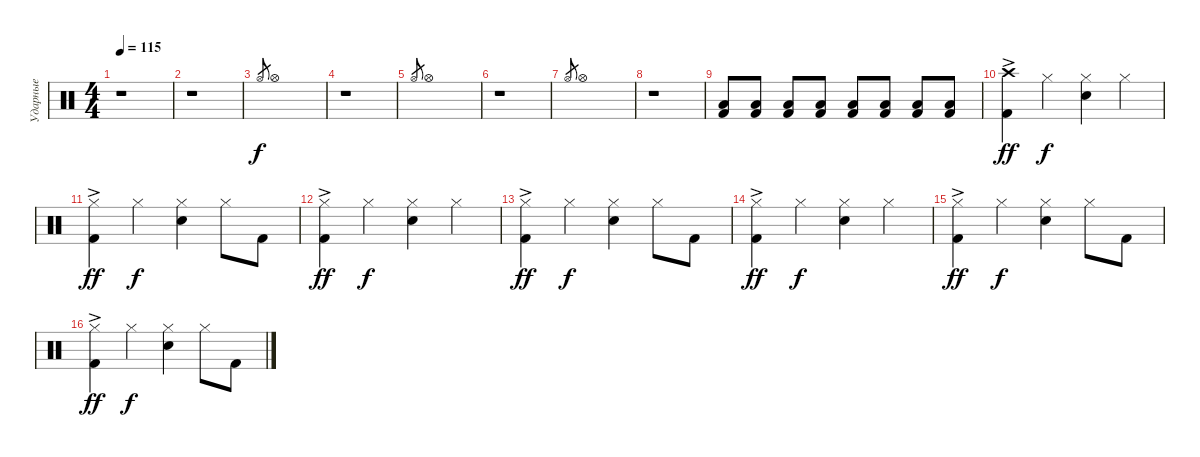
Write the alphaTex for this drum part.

\track ("Ударные" "Ударные") {instrument percussion}
\staff {score}
\articulation defaults
\ts (4 4)
\tempo 115
\clef neutral
\ks c
r.1{dy f} |
r.1 |
"Hi-Hat (open)".8{gr} "Hi-Hat (open)".1 |
r.1 |
"Hi-Hat (open)".8{gr} "Hi-Hat (open)".1 |
r.1 |
"Hi-Hat (open)".8{gr} "Hi-Hat (open)".1 |
r.1{volume 3} |
("Kick (hit) 2" "Low Floor Tom (hit)").8{volume 16} ("Kick (hit) 2" "Low Floor Tom (hit)").8 ("Kick (hit) 2" "Low Floor Tom (hit)").8 ("Kick (hit) 2" "Low Floor Tom (hit)").8 ("Kick (hit) 2" "Low Floor Tom (hit)").8 ("Kick (hit) 2" "Low Floor Tom (hit)").8 ("Kick (hit) 2" "Low Floor Tom (hit)").8 ("Kick (hit) 2" "Low Floor Tom (hit)").8 |
("Kick (hit) 2" "Crash high (hit)"{ac}).4{dy ff} "Hi-Hat (closed)".4{dy f} ("Snare (hit) 2" "Hi-Hat (closed)").4 "Hi-Hat (closed)".4 |
("Kick (hit) 2" "Hi-Hat (closed)"{ac}).4{dy ff} "Hi-Hat (closed)".4{dy f} ("Snare (hit) 2" "Hi-Hat (closed)").4 "Hi-Hat (closed)".8 "Kick (hit) 2".8 |
("Kick (hit) 2" "Hi-Hat (closed)"{ac}).4{dy ff} "Hi-Hat (closed)".4{dy f} ("Snare (hit) 2" "Hi-Hat (closed)").4 "Hi-Hat (closed)".4 |
("Kick (hit) 2" "Hi-Hat (closed)"{ac}).4{dy ff} "Hi-Hat (closed)".4{dy f} ("Snare (hit) 2" "Hi-Hat (closed)").4 "Hi-Hat (closed)".8 "Kick (hit) 2".8 |
("Kick (hit) 2" "Hi-Hat (closed)"{ac}).4{dy ff} "Hi-Hat (closed)".4{dy f} ("Snare (hit) 2" "Hi-Hat (closed)").4 "Hi-Hat (closed)".4 |
("Kick (hit) 2" "Hi-Hat (closed)"{ac}).4{dy ff} "Hi-Hat (closed)".4{dy f} ("Snare (hit) 2" "Hi-Hat (closed)").4 "Hi-Hat (closed)".8 "Kick (hit) 2".8 |
("Kick (hit) 2" "Hi-Hat (closed)"{ac}).4{dy ff} "Hi-Hat (closed)".4{dy f} ("Snare (hit) 2" "Hi-Hat (closed)").4 "Hi-Hat (closed)".8 "Kick (hit) 2".8
